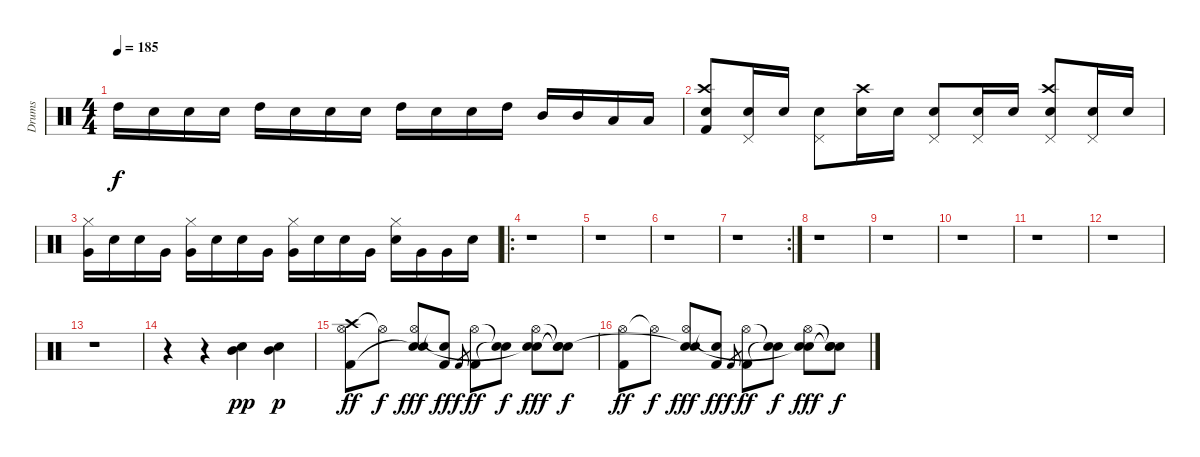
\track ("Drums" "Drums") {instrument percussion}
\staff {score}
\articulation defaults
\ts (4 4)
\tempo 185
\clef neutral
\ks c "High Tom (hit)".16{dy f} "Electric Snare (hit)".16 "Electric Snare (hit)".16 "Electric Snare (hit)".16 "High Tom (hit)".16 "Electric Snare (hit)".16 "Electric Snare (hit)".16 "Electric Snare (hit)".16 "High Tom (hit)".16 "Electric Snare (hit)".16 "Electric Snare (hit)".16 "High Tom (hit)".16 "Mid Tom (hit)".16 "Mid Tom (hit)".16 "Low Tom (hit)".16 "Low Tom (hit)".16
|
("Crash high (hit)" "Electric Snare (hit)" "Kick (hit) 2").8 ("Pedal Hi-Hat (hit)" "Electric Snare (hit)").16 "Electric Snare (hit)".16 ("Pedal Hi-Hat (hit)" "Electric Snare (hit)").8 ("Crash high (hit)" "Electric Snare (hit)").16 "Electric Snare (hit)".16 ("Pedal Hi-Hat (hit)" "Electric Snare (hit)").8 ("Pedal Hi-Hat (hit)" "Electric Snare (hit)").16 "Electric Snare (hit)".16 ("Crash high (hit)" "Pedal Hi-Hat (hit)" "Electric Snare (hit)").8 ("Pedal Hi-Hat (hit)" "Electric Snare (hit)").16 "Electric Snare (hit)".16 |
("Hi-Hat (closed)" "Very Low Tom (hit)").16 "Electric Snare (hit)".16 "Electric Snare (hit)".16 "Very Low Tom (hit)".16 ("Hi-Hat (closed)" "Very Low Tom (hit)").16 "Electric Snare (hit)".16 "Electric Snare (hit)".16 "Very Low Tom (hit)".16 ("Hi-Hat (closed)" "Very Low Tom (hit)").16 "Electric Snare (hit)".16 "Electric Snare (hit)".16 "Very Low Tom (hit)".16 ("Hi-Hat (closed)" "Electric Snare (hit)").16 "Very Low Tom (hit)".16 "Very Low Tom (hit)".16 "Electric Snare (hit)".16 |
\ro
r.1 |
r.1 |
r.1 |
\rc 2
r.1 |
r.1 |
r.1 |
r.1 |
r.1 |
r.1 |
r.1 |
r.4 r.4 ("Electric Snare (hit)" "Mid Tom (hit)").4{dy pp} ("Electric Snare (hit)" "Mid Tom (hit)").4{dy p} |
("Crash high (hit)" "Hi-Hat (open)" "Kick (hit) 2").8{dy ff} "Hi-Hat (open)"{t}.8{dy f} ("Hi-Hat (open)" "Electric Snare (hit)" "Snare (hit)"{t}).8{dy fff} ("Snare (hit)"{t} "Kick (hit) 2").8{dy ff} "Kick (hit) 2".8{gr dy f} ("Hi-Hat (open)" "Kick (hit) 2").8{dy ff} ("Snare (hit)"{t} "Snare (hit)"{t}).8{dy f} ("Hi-Hat (open)" "Electric Snare (hit)" "Snare (hit)"{t}).8{dy fff} ("Snare (hit)"{t} "Snare (hit)"{t} "Snare (hit)"{t}).8{dy f} |
("Hi-Hat (open)" "Kick (hit) 2").8{dy ff} "Hi-Hat (open)"{t}.8{dy f} ("Hi-Hat (open)" "Electric Snare (hit)" "Snare (hit)"{t}).8{dy fff} ("Snare (hit)"{t} "Kick (hit) 2").8{dy ff} "Kick (hit) 2".8{gr dy f} ("Hi-Hat (open)" "Kick (hit) 2").8{dy ff} ("Snare (hit)"{t} "Snare (hit)"{t}).8{dy f} ("Hi-Hat (open)" "Electric Snare (hit)" "Snare (hit)"{t}).8{dy fff} ("Snare (hit)"{t} "Snare (hit)"{t} "Snare (hit)"{t}).8{dy f}
